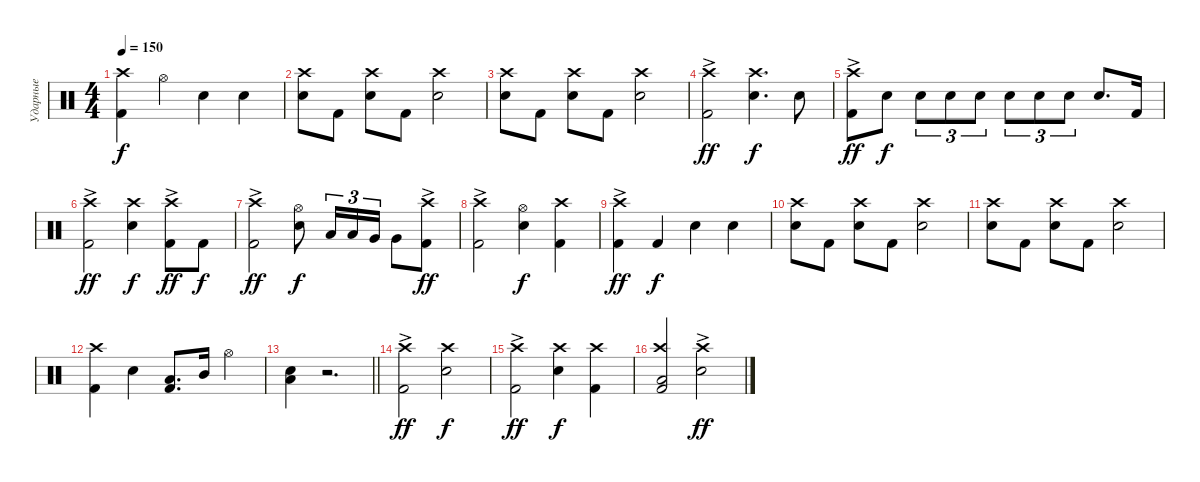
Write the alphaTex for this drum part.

\track ("Ударные" "Ударные") {instrument percussion}
\staff
\articulation defaults
\ts (4 4)
\tempo 150
\clef neutral
\ks c
("Kick (hit) 2" "Crash high (hit)").4{dy f} "Hi-Hat (open)".4 "Snare (hit) 2".4 "Snare (hit) 2".4 |
("Snare (hit) 2" "Crash high (hit)").8 "Kick (hit) 2".8 ("Snare (hit) 2" "Crash high (hit)").8 "Kick (hit) 2".8 ("Snare (hit) 2" "Crash high (hit)").2 |
("Snare (hit) 2" "Crash high (hit)").8 "Kick (hit) 2".8 ("Snare (hit) 2" "Crash high (hit)").8 "Kick (hit) 2".8 ("Snare (hit) 2" "Crash high (hit)").2 |
("Kick (hit) 2" "Crash high (hit)"{ac}).2{dy ff} ("Snare (hit) 2" "Crash high (hit)").4{d dy f} "Snare (hit) 2".8 |
("Kick (hit) 2" "Crash high (hit)"{ac}).8{dy ff} "Snare (hit) 2".8{dy f} "Electric Snare (hit)".8{tu (3 2)} "Electric Snare (hit)".8{tu (3 2)} "Electric Snare (hit)".8{tu (3 2)} "Electric Snare (hit)".8{tu (3 2)} "Electric Snare (hit)".8{tu (3 2)} "Electric Snare (hit)".8{tu (3 2)} "Snare (hit) 2".8{d} "Kick (hit) 2".16 |
("Kick (hit) 2" "Crash high (hit)"{ac}).2{dy ff} ("Snare (hit) 2" "Crash high (hit)").4{dy f} ("Kick (hit) 2" "Crash high (hit)"{ac}).8{dy ff} "Kick (hit) 2".8{dy f} |
("Kick (hit) 2" "Crash high (hit)"{ac}).2{dy ff} ("Snare (hit) 2" "Hi-Hat (open)").8{dy f} "Low Tom (hit)".16{tu (3 2)} "Low Tom (hit)".16{tu (3 2)} "Very Low Tom (hit)".16{tu (3 2)} "Very Low Tom (hit)".8 ("Kick (hit) 2" "Crash high (hit)"{ac}).8{dy ff} |
("Kick (hit) 2" "Crash high (hit)"{ac}).2 ("Snare (hit) 2" "Hi-Hat (open)").4{dy f} ("Kick (hit) 2" "Crash high (hit)").4 |
("Kick (hit) 2" "Crash high (hit)"{ac}).4{dy ff} "Kick (hit) 2".4{dy f} "Snare (hit) 2".4 "Snare (hit) 2".4 |
("Snare (hit) 2" "Crash high (hit)").8 "Kick (hit) 2".8 ("Snare (hit) 2" "Crash high (hit)").8 "Kick (hit) 2".8 ("Snare (hit) 2" "Crash high (hit)").2 |
("Snare (hit) 2" "Crash high (hit)").8 "Kick (hit) 2".8 ("Snare (hit) 2" "Crash high (hit)").8 "Kick (hit) 2".8 ("Snare (hit) 2" "Crash high (hit)").2 |
("Kick (hit) 2" "Crash high (hit)").4 "Snare (hit) 2".4 ("Kick (hit) 2" "Low Tom (hit)").8{d} "Mid Tom (hit)".16 "Hi-Hat (open)".4 |
\barLineRight lightlight
("Snare (hit) 2" "Low Floor Tom (hit)").4 r.2{d} |
("Kick (hit) 2" "Crash high (hit)"{ac}).2{dy ff} ("Snare (hit) 2" "Crash high (hit)").2{dy f} |
("Kick (hit) 2" "Crash high (hit)"{ac}).2{dy ff} ("Snare (hit) 2" "Crash high (hit)").4{dy f} ("Kick (hit) 2" "Crash high (hit)").4 |
("Kick (hit) 2" "Low Floor Tom (hit)" "Crash high (hit)").2 ("Snare (hit) 2" "Crash high (hit)"{ac}).2{dy ff}
